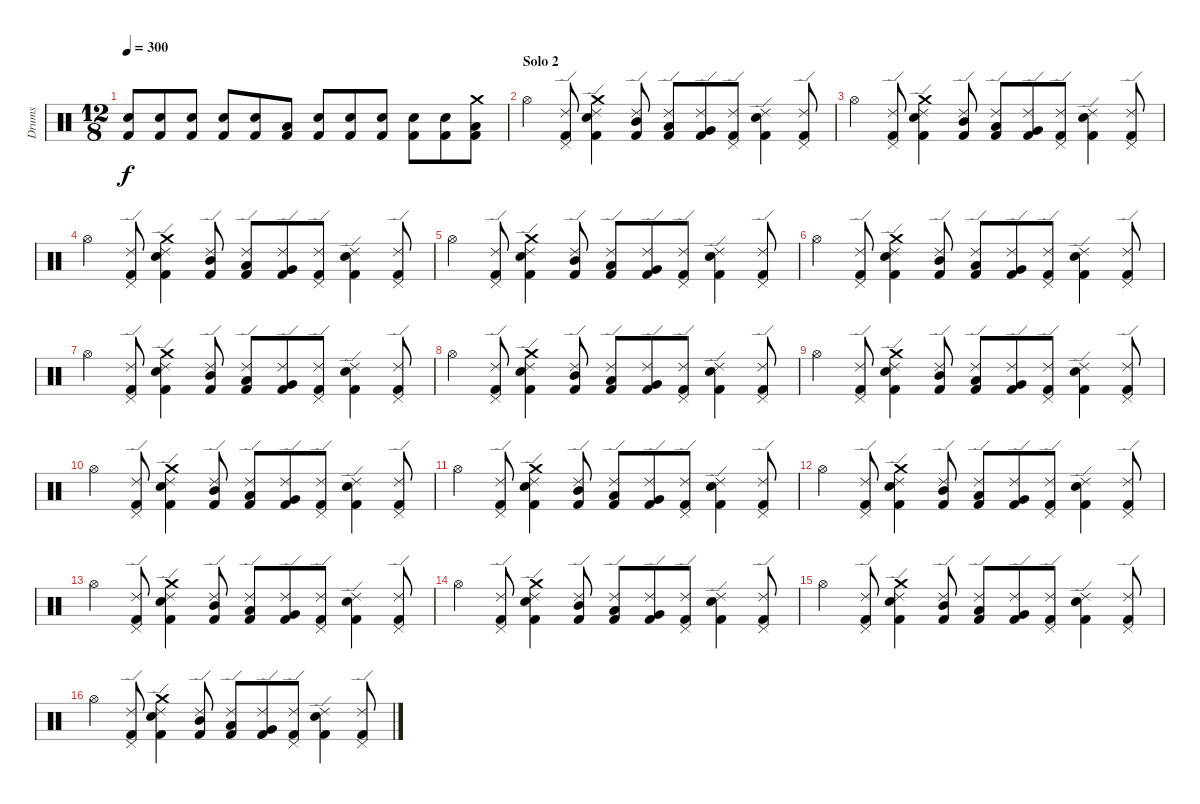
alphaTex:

\track ("Drums" "Drums") {instrument percussion}
\staff {score}
\articulation defaults
\ts (12 8)
\tempo 300
\clef neutral
\ks c
("Snare (hit) 2" "Kick (hit) 2").8{dy f} ("Snare (hit) 2" "Kick (hit) 2").8 ("Snare (hit) 2" "Kick (hit) 2").8 ("Snare (hit) 2" "Kick (hit) 2").8 ("Snare (hit) 2" "Kick (hit) 2").8 ("Low Tom (hit)" "Kick (hit) 2").8 ("Snare (hit) 2" "Kick (hit) 2").8 ("Snare (hit) 2" "Kick (hit) 2").8 ("Snare (hit) 2" "Kick (hit) 2").8 ("Snare (hit) 2" "Kick (hit) 2").8 ("Snare (hit) 2" "Kick (hit) 2").8 ("Crash medium (hit)" "Low Tom (hit)" "Kick (hit) 2").8 |
\section ("" "Solo 2")
"Hi-Hat (open)".4 ("Ride (edge) 2" "Pedal Hi-Hat (hit)" "Kick (hit) 2").8 ("Ride (edge) 2" "Crash medium (hit)" "Snare (hit) 2" "Kick (hit) 2").4 ("Ride (edge) 2" "Mid Tom (hit)" "Kick (hit) 2").8 ("Ride (edge) 2" "Low Tom (hit)" "Kick (hit) 2").8 ("Ride (edge) 2" "Very Low Tom (hit)" "Kick (hit) 2").8 ("Ride (edge) 2" "Pedal Hi-Hat (hit)" "Kick (hit) 2").8 ("Ride (edge) 2" "Snare (hit) 2" "Kick (hit) 2").4 ("Ride (edge) 2" "Pedal Hi-Hat (hit)" "Kick (hit) 2").8 |
"Hi-Hat (open)".4 ("Ride (edge) 2" "Pedal Hi-Hat (hit)" "Kick (hit) 2").8 ("Ride (edge) 2" "Crash medium (hit)" "Snare (hit) 2" "Kick (hit) 2").4 ("Ride (edge) 2" "Mid Tom (hit)" "Kick (hit) 2").8 ("Ride (edge) 2" "Low Tom (hit)" "Kick (hit) 2").8 ("Ride (edge) 2" "Very Low Tom (hit)" "Kick (hit) 2").8 ("Ride (edge) 2" "Pedal Hi-Hat (hit)" "Kick (hit) 2").8 ("Ride (edge) 2" "Snare (hit) 2" "Kick (hit) 2").4 ("Ride (edge) 2" "Pedal Hi-Hat (hit)" "Kick (hit) 2").8 |
"Hi-Hat (open)".4 ("Ride (edge) 2" "Pedal Hi-Hat (hit)" "Kick (hit) 2").8 ("Ride (edge) 2" "Crash medium (hit)" "Snare (hit) 2" "Kick (hit) 2").4 ("Ride (edge) 2" "Mid Tom (hit)" "Kick (hit) 2").8 ("Ride (edge) 2" "Low Tom (hit)" "Kick (hit) 2").8 ("Ride (edge) 2" "Very Low Tom (hit)" "Kick (hit) 2").8 ("Ride (edge) 2" "Pedal Hi-Hat (hit)" "Kick (hit) 2").8 ("Ride (edge) 2" "Snare (hit) 2" "Kick (hit) 2").4 ("Ride (edge) 2" "Pedal Hi-Hat (hit)" "Kick (hit) 2").8 |
"Hi-Hat (open)".4 ("Ride (edge) 2" "Pedal Hi-Hat (hit)" "Kick (hit) 2").8 ("Ride (edge) 2" "Crash medium (hit)" "Snare (hit) 2" "Kick (hit) 2").4 ("Ride (edge) 2" "Mid Tom (hit)" "Kick (hit) 2").8 ("Ride (edge) 2" "Low Tom (hit)" "Kick (hit) 2").8 ("Ride (edge) 2" "Very Low Tom (hit)" "Kick (hit) 2").8 ("Ride (edge) 2" "Pedal Hi-Hat (hit)" "Kick (hit) 2").8 ("Ride (edge) 2" "Snare (hit) 2" "Kick (hit) 2").4 ("Ride (edge) 2" "Pedal Hi-Hat (hit)" "Kick (hit) 2").8 |
"Hi-Hat (open)".4 ("Ride (edge) 2" "Pedal Hi-Hat (hit)" "Kick (hit) 2").8 ("Ride (edge) 2" "Crash medium (hit)" "Snare (hit) 2" "Kick (hit) 2").4 ("Ride (edge) 2" "Mid Tom (hit)" "Kick (hit) 2").8 ("Ride (edge) 2" "Low Tom (hit)" "Kick (hit) 2").8 ("Ride (edge) 2" "Very Low Tom (hit)" "Kick (hit) 2").8 ("Ride (edge) 2" "Pedal Hi-Hat (hit)" "Kick (hit) 2").8 ("Ride (edge) 2" "Snare (hit) 2" "Kick (hit) 2").4 ("Ride (edge) 2" "Pedal Hi-Hat (hit)" "Kick (hit) 2").8 |
"Hi-Hat (open)".4 ("Ride (edge) 2" "Pedal Hi-Hat (hit)" "Kick (hit) 2").8 ("Ride (edge) 2" "Crash medium (hit)" "Snare (hit) 2" "Kick (hit) 2").4 ("Ride (edge) 2" "Mid Tom (hit)" "Kick (hit) 2").8 ("Ride (edge) 2" "Low Tom (hit)" "Kick (hit) 2").8 ("Ride (edge) 2" "Very Low Tom (hit)" "Kick (hit) 2").8 ("Ride (edge) 2" "Pedal Hi-Hat (hit)" "Kick (hit) 2").8 ("Ride (edge) 2" "Snare (hit) 2" "Kick (hit) 2").4 ("Ride (edge) 2" "Pedal Hi-Hat (hit)" "Kick (hit) 2").8 |
"Hi-Hat (open)".4 ("Ride (edge) 2" "Pedal Hi-Hat (hit)" "Kick (hit) 2").8 ("Ride (edge) 2" "Crash medium (hit)" "Snare (hit) 2" "Kick (hit) 2").4 ("Ride (edge) 2" "Mid Tom (hit)" "Kick (hit) 2").8 ("Ride (edge) 2" "Low Tom (hit)" "Kick (hit) 2").8 ("Ride (edge) 2" "Very Low Tom (hit)" "Kick (hit) 2").8 ("Ride (edge) 2" "Pedal Hi-Hat (hit)" "Kick (hit) 2").8 ("Ride (edge) 2" "Snare (hit) 2" "Kick (hit) 2").4 ("Ride (edge) 2" "Pedal Hi-Hat (hit)" "Kick (hit) 2").8 |
"Hi-Hat (open)".4 ("Ride (edge) 2" "Pedal Hi-Hat (hit)" "Kick (hit) 2").8 ("Ride (edge) 2" "Crash medium (hit)" "Snare (hit) 2" "Kick (hit) 2").4 ("Ride (edge) 2" "Mid Tom (hit)" "Kick (hit) 2").8 ("Ride (edge) 2" "Low Tom (hit)" "Kick (hit) 2").8 ("Ride (edge) 2" "Very Low Tom (hit)" "Kick (hit) 2").8 ("Ride (edge) 2" "Pedal Hi-Hat (hit)" "Kick (hit) 2").8 ("Ride (edge) 2" "Snare (hit) 2" "Kick (hit) 2").4 ("Ride (edge) 2" "Pedal Hi-Hat (hit)" "Kick (hit) 2").8 |
"Hi-Hat (open)".4 ("Ride (edge) 2" "Pedal Hi-Hat (hit)" "Kick (hit) 2").8 ("Ride (edge) 2" "Crash medium (hit)" "Snare (hit) 2" "Kick (hit) 2").4 ("Ride (edge) 2" "Mid Tom (hit)" "Kick (hit) 2").8 ("Ride (edge) 2" "Low Tom (hit)" "Kick (hit) 2").8 ("Ride (edge) 2" "Very Low Tom (hit)" "Kick (hit) 2").8 ("Ride (edge) 2" "Pedal Hi-Hat (hit)" "Kick (hit) 2").8 ("Ride (edge) 2" "Snare (hit) 2" "Kick (hit) 2").4 ("Ride (edge) 2" "Pedal Hi-Hat (hit)" "Kick (hit) 2").8 |
"Hi-Hat (open)".4 ("Ride (edge) 2" "Pedal Hi-Hat (hit)" "Kick (hit) 2").8 ("Ride (edge) 2" "Crash medium (hit)" "Snare (hit) 2" "Kick (hit) 2").4 ("Ride (edge) 2" "Mid Tom (hit)" "Kick (hit) 2").8 ("Ride (edge) 2" "Low Tom (hit)" "Kick (hit) 2").8 ("Ride (edge) 2" "Very Low Tom (hit)" "Kick (hit) 2").8 ("Ride (edge) 2" "Pedal Hi-Hat (hit)" "Kick (hit) 2").8 ("Ride (edge) 2" "Snare (hit) 2" "Kick (hit) 2").4 ("Ride (edge) 2" "Pedal Hi-Hat (hit)" "Kick (hit) 2").8 |
"Hi-Hat (open)".4 ("Ride (edge) 2" "Pedal Hi-Hat (hit)" "Kick (hit) 2").8 ("Ride (edge) 2" "Crash medium (hit)" "Snare (hit) 2" "Kick (hit) 2").4 ("Ride (edge) 2" "Mid Tom (hit)" "Kick (hit) 2").8 ("Ride (edge) 2" "Low Tom (hit)" "Kick (hit) 2").8 ("Ride (edge) 2" "Very Low Tom (hit)" "Kick (hit) 2").8 ("Ride (edge) 2" "Pedal Hi-Hat (hit)" "Kick (hit) 2").8 ("Ride (edge) 2" "Snare (hit) 2" "Kick (hit) 2").4 ("Ride (edge) 2" "Pedal Hi-Hat (hit)" "Kick (hit) 2").8 |
"Hi-Hat (open)".4 ("Ride (edge) 2" "Pedal Hi-Hat (hit)" "Kick (hit) 2").8 ("Ride (edge) 2" "Crash medium (hit)" "Snare (hit) 2" "Kick (hit) 2").4 ("Ride (edge) 2" "Mid Tom (hit)" "Kick (hit) 2").8 ("Ride (edge) 2" "Low Tom (hit)" "Kick (hit) 2").8 ("Ride (edge) 2" "Very Low Tom (hit)" "Kick (hit) 2").8 ("Ride (edge) 2" "Pedal Hi-Hat (hit)" "Kick (hit) 2").8 ("Ride (edge) 2" "Snare (hit) 2" "Kick (hit) 2").4 ("Ride (edge) 2" "Pedal Hi-Hat (hit)" "Kick (hit) 2").8 |
"Hi-Hat (open)".4 ("Ride (edge) 2" "Pedal Hi-Hat (hit)" "Kick (hit) 2").8 ("Ride (edge) 2" "Crash medium (hit)" "Snare (hit) 2" "Kick (hit) 2").4 ("Ride (edge) 2" "Mid Tom (hit)" "Kick (hit) 2").8 ("Ride (edge) 2" "Low Tom (hit)" "Kick (hit) 2").8 ("Ride (edge) 2" "Very Low Tom (hit)" "Kick (hit) 2").8 ("Ride (edge) 2" "Pedal Hi-Hat (hit)" "Kick (hit) 2").8 ("Ride (edge) 2" "Snare (hit) 2" "Kick (hit) 2").4 ("Ride (edge) 2" "Pedal Hi-Hat (hit)" "Kick (hit) 2").8 |
"Hi-Hat (open)".4 ("Ride (edge) 2" "Pedal Hi-Hat (hit)" "Kick (hit) 2").8 ("Ride (edge) 2" "Crash medium (hit)" "Snare (hit) 2" "Kick (hit) 2").4 ("Ride (edge) 2" "Mid Tom (hit)" "Kick (hit) 2").8 ("Ride (edge) 2" "Low Tom (hit)" "Kick (hit) 2").8 ("Ride (edge) 2" "Very Low Tom (hit)" "Kick (hit) 2").8 ("Ride (edge) 2" "Pedal Hi-Hat (hit)" "Kick (hit) 2").8 ("Ride (edge) 2" "Snare (hit) 2" "Kick (hit) 2").4 ("Ride (edge) 2" "Pedal Hi-Hat (hit)" "Kick (hit) 2").8 |
"Hi-Hat (open)".4 ("Ride (edge) 2" "Pedal Hi-Hat (hit)" "Kick (hit) 2").8 ("Ride (edge) 2" "Crash medium (hit)" "Snare (hit) 2" "Kick (hit) 2").4 ("Ride (edge) 2" "Mid Tom (hit)" "Kick (hit) 2").8 ("Ride (edge) 2" "Low Tom (hit)" "Kick (hit) 2").8 ("Ride (edge) 2" "Very Low Tom (hit)" "Kick (hit) 2").8 ("Ride (edge) 2" "Pedal Hi-Hat (hit)" "Kick (hit) 2").8 ("Ride (edge) 2" "Snare (hit) 2" "Kick (hit) 2").4 ("Ride (edge) 2" "Pedal Hi-Hat (hit)" "Kick (hit) 2").8
